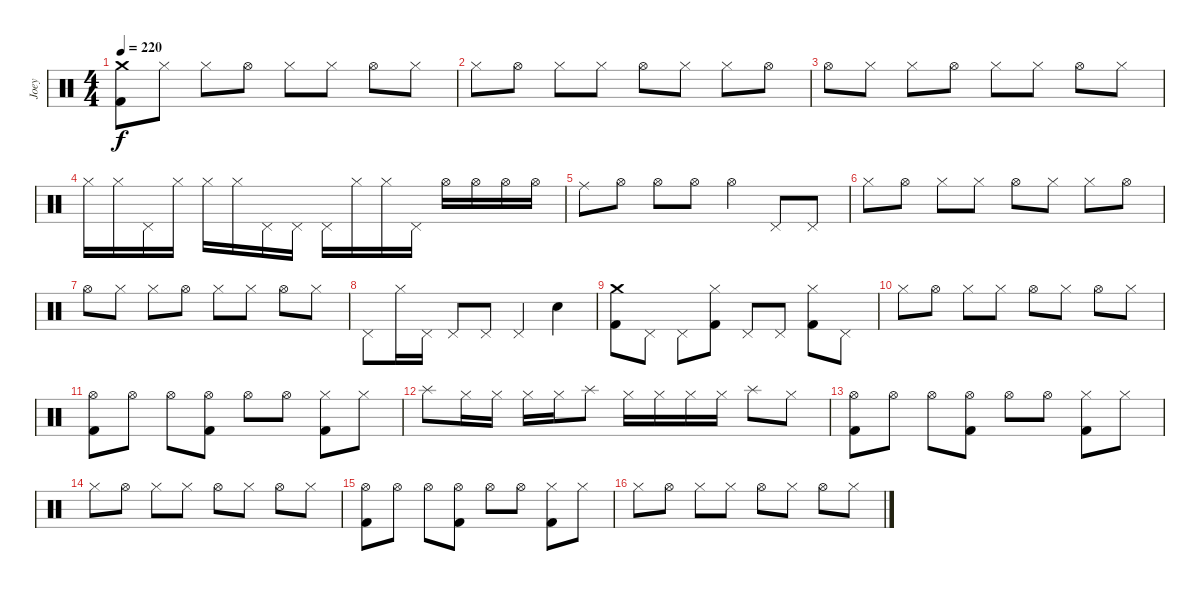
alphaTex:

\track ("Joey" "Joey") {instrument percussion}
\staff {score}
\articulation defaults
\ts (4 4)
\tempo 220
\clef neutral
\ks c
("Crash medium (hit)" "Kick (hit) 2").8{dy f} "Hi-Hat (closed)".8 "Hi-Hat (closed)".8 "Hi-Hat (open)".8 "Hi-Hat (closed)".8 "Hi-Hat (closed)".8 "Hi-Hat (open)".8 "Hi-Hat (closed)".8 |
"Hi-Hat (closed)".8 "Hi-Hat (open)".8 "Hi-Hat (closed)".8 "Hi-Hat (closed)".8 "Hi-Hat (open)".8 "Hi-Hat (closed)".8 "Hi-Hat (closed)".8 "Hi-Hat (open)".8 |
"Hi-Hat (open)".8 "Hi-Hat (closed)".8 "Hi-Hat (closed)".8 "Hi-Hat (open)".8 "Hi-Hat (closed)".8 "Hi-Hat (closed)".8 "Hi-Hat (open)".8 "Hi-Hat (closed)".8 |
"Hi-Hat (closed)".16 "Hi-Hat (closed)".16 "Pedal Hi-Hat (hit)".16 "Hi-Hat (closed)".16 "Hi-Hat (closed)".16 "Hi-Hat (closed)".16 "Pedal Hi-Hat (hit)".16 "Pedal Hi-Hat (hit)".16 "Pedal Hi-Hat (hit)".16 "Hi-Hat (closed)".16 "Hi-Hat (closed)".16 "Pedal Hi-Hat (hit)".16 "Hi-Hat (open)".16 "Hi-Hat (open)".16 "Hi-Hat (open)".16 "Hi-Hat (open)".16 |
"Ride (middle)".8 "Hi-Hat (open)".8 "Hi-Hat (open)".8 "Hi-Hat (open)".8 "Hi-Hat (open)".4 "Pedal Hi-Hat (hit)".8 "Pedal Hi-Hat (hit)".8 |
"Hi-Hat (closed)".8 "Hi-Hat (open)".8 "Hi-Hat (closed)".8 "Hi-Hat (closed)".8 "Hi-Hat (open)".8 "Hi-Hat (closed)".8 "Hi-Hat (closed)".8 "Hi-Hat (open)".8 |
"Hi-Hat (open)".8 "Hi-Hat (closed)".8 "Hi-Hat (closed)".8 "Hi-Hat (open)".8 "Hi-Hat (closed)".8 "Hi-Hat (closed)".8 "Hi-Hat (open)".8 "Hi-Hat (closed)".8 |
"Pedal Hi-Hat (hit)".8 "Hi-Hat (closed)".16 "Pedal Hi-Hat (hit)".16 "Pedal Hi-Hat (hit)".8 "Pedal Hi-Hat (hit)".8 "Pedal Hi-Hat (hit)".4 "Electric Snare (hit)".4 |
("Crash medium (hit)" "Kick (hit) 2").8 "Pedal Hi-Hat (hit)".8 "Pedal Hi-Hat (hit)".8 ("Hi-Hat (closed)" "Kick (hit) 2").8 "Pedal Hi-Hat (hit)".8 "Pedal Hi-Hat (hit)".8 ("Hi-Hat (closed)" "Kick (hit) 2").8 "Pedal Hi-Hat (hit)".8 |
"Hi-Hat (closed)".8 "Hi-Hat (open)".8 "Hi-Hat (closed)".8 "Hi-Hat (closed)".8 "Hi-Hat (open)".8 "Hi-Hat (closed)".8 "Hi-Hat (open)".8 "Hi-Hat (closed)".8 |
("Hi-Hat (open)" "Kick (hit) 2").8 "Hi-Hat (open)".8 "Hi-Hat (open)".8 ("Hi-Hat (open)" "Kick (hit) 2").8 "Hi-Hat (open)".8 "Hi-Hat (open)".8 ("Hi-Hat (closed)" "Kick (hit) 2").8 "Hi-Hat (closed)".8 |
"Splash (hit)".8 "Hi-Hat (closed)".16 "Hi-Hat (closed)".16 "Hi-Hat (closed)".16 "Hi-Hat (closed)".16 "Splash (hit)".8 "Hi-Hat (closed)".16 "Hi-Hat (closed)".16 "Hi-Hat (closed)".16 "Hi-Hat (closed)".16 "Splash (hit)".8 "Hi-Hat (closed)".8 |
("Hi-Hat (open)" "Kick (hit) 2").8 "Hi-Hat (open)".8 "Hi-Hat (open)".8 ("Hi-Hat (open)" "Kick (hit) 2").8 "Hi-Hat (open)".8 "Hi-Hat (open)".8 ("Hi-Hat (closed)" "Kick (hit) 2").8 "Hi-Hat (closed)".8 |
"Hi-Hat (closed)".8 "Hi-Hat (open)".8 "Hi-Hat (closed)".8 "Hi-Hat (closed)".8 "Hi-Hat (open)".8 "Hi-Hat (closed)".8 "Hi-Hat (open)".8 "Hi-Hat (closed)".8 |
("Hi-Hat (open)" "Kick (hit) 2").8 "Hi-Hat (open)".8 "Hi-Hat (open)".8 ("Hi-Hat (open)" "Kick (hit) 2").8 "Hi-Hat (open)".8 "Hi-Hat (open)".8 ("Hi-Hat (closed)" "Kick (hit) 2").8 "Hi-Hat (closed)".8 |
"Hi-Hat (closed)".8 "Hi-Hat (open)".8 "Hi-Hat (closed)".8 "Hi-Hat (closed)".8 "Hi-Hat (open)".8 "Hi-Hat (closed)".8 "Hi-Hat (open)".8 "Hi-Hat (closed)".8
